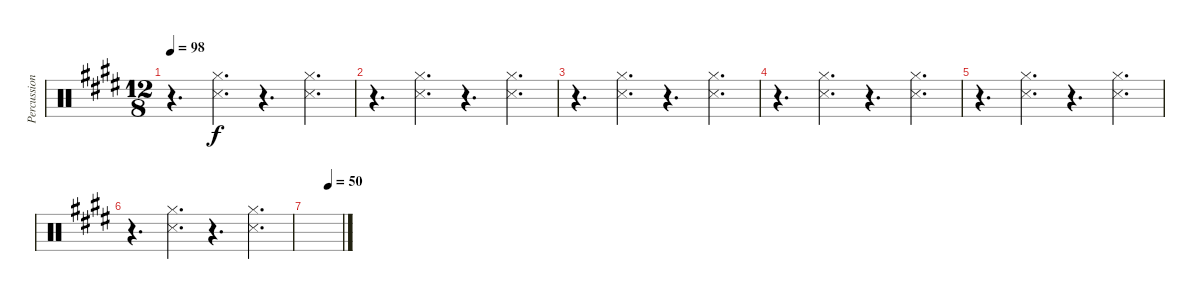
\track ("Percussion" "Percussion") {instrument percussion}
\staff {score}
\articulation defaults
\ts (12 8)
\tempo 98
\clef neutral
\ks e
r.4{d dy f} ("Hi-Hat (closed)" "Snare (side stick) 3").4{d} r.4{d} ("Hi-Hat (closed)" "Snare (side stick) 3").4{d} |
r.4{d} ("Hi-Hat (closed)" "Snare (side stick) 3").4{d} r.4{d} ("Hi-Hat (closed)" "Snare (side stick) 3").4{d} |
r.4{d} ("Hi-Hat (closed)" "Snare (side stick) 3").4{d} r.4{d} ("Hi-Hat (closed)" "Snare (side stick) 3").4{d} |
r.4{d} ("Hi-Hat (closed)" "Snare (side stick) 3").4{d} r.4{d} ("Hi-Hat (closed)" "Snare (side stick) 3").4{d} |
r.4{d} ("Hi-Hat (closed)" "Snare (side stick) 3").4{d} r.4{d} ("Hi-Hat (closed)" "Snare (side stick) 3").4{d} |
r.4{d} ("Hi-Hat (closed)" "Snare (side stick) 3").4{d} r.4{d} ("Hi-Hat (closed)" "Snare (side stick) 3").4{d} |
\tempo (50 0.625)
